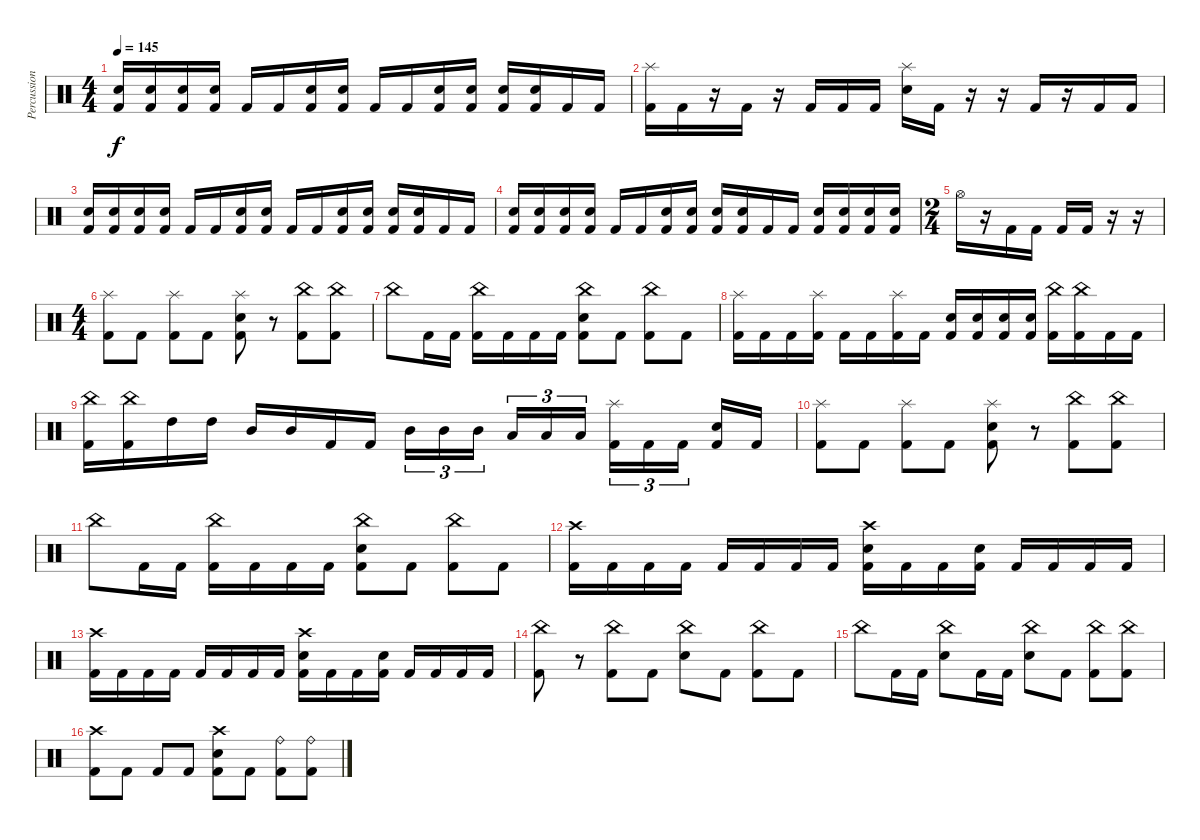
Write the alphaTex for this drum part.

\track ("Percussion" "Percussion") {instrument percussion}
\staff {score}
\articulation defaults
\ts (4 4)
\tempo 145
\clef neutral
\ks c
("Snare (hit) 2" "Kick (hit) 2").16{dy f} ("Snare (hit) 2" "Kick (hit) 2").16 ("Snare (hit) 2" "Kick (hit) 2").16 ("Snare (hit) 2" "Kick (hit) 2").16 "Kick (hit) 2".16 "Kick (hit) 2".16 ("Snare (hit) 2" "Kick (hit) 2").16 ("Snare (hit) 2" "Kick (hit) 2").16 "Kick (hit) 2".16 "Kick (hit) 2".16 ("Snare (hit) 2" "Kick (hit) 2").16 ("Snare (hit) 2" "Kick (hit) 2").16 ("Snare (hit) 2" "Kick (hit) 2").16 ("Snare (hit) 2" "Kick (hit) 2").16 "Kick (hit) 2".16 "Kick (hit) 2".16 |
("Splash (hit)" "Kick (hit) 2").16 "Kick (hit) 2".16 r.16 "Kick (hit) 2".16 r.16 "Kick (hit) 2".16 "Kick (hit) 2".16 "Kick (hit) 2".16 ("Splash (hit)" "Snare (hit) 2").16 "Kick (hit) 2".16 r.16 r.16 "Kick (hit) 2".16 r.16 "Kick (hit) 2".16 "Kick (hit) 2".16 |
("Snare (hit) 2" "Kick (hit) 2").16 ("Snare (hit) 2" "Kick (hit) 2").16 ("Snare (hit) 2" "Kick (hit) 2").16 ("Snare (hit) 2" "Kick (hit) 2").16 "Kick (hit) 2".16 "Kick (hit) 2".16 ("Snare (hit) 2" "Kick (hit) 2").16 ("Snare (hit) 2" "Kick (hit) 2").16 "Kick (hit) 2".16 "Kick (hit) 2".16 ("Snare (hit) 2" "Kick (hit) 2").16 ("Snare (hit) 2" "Kick (hit) 2").16 ("Snare (hit) 2" "Kick (hit) 2").16 ("Snare (hit) 2" "Kick (hit) 2").16 "Kick (hit) 2".16 "Kick (hit) 2".16 |
("Snare (hit) 2" "Kick (hit) 2").16 ("Snare (hit) 2" "Kick (hit) 2").16 ("Snare (hit) 2" "Kick (hit) 2").16 ("Snare (hit) 2" "Kick (hit) 2").16 "Kick (hit) 2".16 "Kick (hit) 2".16 ("Snare (hit) 2" "Kick (hit) 2").16 ("Snare (hit) 2" "Kick (hit) 2").16 ("Snare (hit) 2" "Kick (hit) 2").16 ("Snare (hit) 2" "Kick (hit) 2").16 "Kick (hit) 2".16 "Kick (hit) 2".16 ("Snare (hit) 2" "Kick (hit) 2").16 ("Snare (hit) 2" "Kick (hit) 2").16 ("Snare (hit) 2" "Kick (hit) 2").16 ("Snare (hit) 2" "Kick (hit) 2").16 |
\ts (2 4)
"Hi-Hat (open)".16 r.16 "Kick (hit) 2".16 "Kick (hit) 2".16 "Kick (hit) 2".16 "Kick (hit) 2".16 r.16 r.16 |
\ts (4 4)
("Splash (hit)" "Kick (hit) 2").8 "Kick (hit) 2".8 ("Splash (hit)" "Kick (hit) 2").8 "Kick (hit) 2".8 ("Splash (hit)" "Snare (hit) 2" "Kick (hit) 2").8 r.8 ("China (hit)" "Kick (hit) 2").8 ("China (hit)" "Kick (hit) 2").8 |
"China (hit)".8 "Kick (hit) 2".16 "Kick (hit) 2".16 ("China (hit)" "Kick (hit) 2").16 "Kick (hit) 2".16 "Kick (hit) 2".16 "Kick (hit) 2".16 ("China (hit)" "Snare (hit) 2" "Kick (hit) 2").8 "Kick (hit) 2".8 ("China (hit)" "Kick (hit) 2").8 "Kick (hit) 2".8 |
("Splash (hit)" "Kick (hit) 2").16 "Kick (hit) 2".16 "Kick (hit) 2".16 ("Splash (hit)" "Kick (hit) 2").16 "Kick (hit) 2".16 "Kick (hit) 2".16 ("Splash (hit)" "Kick (hit) 2").16 "Kick (hit) 2".16 ("Snare (hit) 2" "Kick (hit) 2").16 ("Snare (hit) 2" "Kick (hit) 2").16 ("Snare (hit) 2" "Kick (hit) 2").16 ("Snare (hit) 2" "Kick (hit) 2").16 ("China (hit)" "Kick (hit) 2").16 ("China (hit)" "Kick (hit) 2").16 "Kick (hit) 2".16 "Kick (hit) 2".16 |
("China (hit)" "Kick (hit) 2").16 ("China (hit)" "Kick (hit) 2").16 "High Tom (hit)".16 "High Tom (hit)".16 "Mid Tom (hit)".16 "Mid Tom (hit)".16 "Kick (hit) 2".16 "Kick (hit) 2".16 "Mid Tom (hit)".16{tu (3 2)} "Mid Tom (hit)".16{tu (3 2)} "Mid Tom (hit)".16{tu (3 2) beam splitsecondary} "Low Tom (hit)".16{tu (3 2)} "Low Tom (hit)".16{tu (3 2)} "Low Tom (hit)".16{tu (3 2)} ("Splash (hit)" "Kick (hit) 2").16{tu (3 2)} "Kick (hit) 2".16{tu (3 2)} "Kick (hit) 2".16{tu (3 2) beam splitsecondary} ("Snare (hit) 2" "Kick (hit) 2").16 "Kick (hit) 2".16 |
("Splash (hit)" "Kick (hit) 2").8 "Kick (hit) 2".8 ("Splash (hit)" "Kick (hit) 2").8 "Kick (hit) 2".8 ("Splash (hit)" "Snare (hit) 2" "Kick (hit) 2").8 r.8 ("China (hit)" "Kick (hit) 2").8 ("China (hit)" "Kick (hit) 2").8 |
"China (hit)".8 "Kick (hit) 2".16 "Kick (hit) 2".16 ("China (hit)" "Kick (hit) 2").16 "Kick (hit) 2".16 "Kick (hit) 2".16 "Kick (hit) 2".16 ("China (hit)" "Snare (hit) 2" "Kick (hit) 2").8 "Kick (hit) 2".8 ("China (hit)" "Kick (hit) 2").8 "Kick (hit) 2".8 |
("Crash high (hit)" "Kick (hit) 2").16 "Kick (hit) 2".16 "Kick (hit) 2".16 "Kick (hit) 2".16 "Kick (hit) 2".16 "Kick (hit) 2".16 "Kick (hit) 2".16 "Kick (hit) 2".16 ("Crash high (hit)" "Snare (hit) 2" "Kick (hit) 2").16 "Kick (hit) 2".16 "Kick (hit) 2".16 ("Snare (hit) 2" "Kick (hit) 2").16 "Kick (hit) 2".16 "Kick (hit) 2".16 "Kick (hit) 2".16 "Kick (hit) 2".16 |
("Crash high (hit)" "Kick (hit) 2").16 "Kick (hit) 2".16 "Kick (hit) 2".16 "Kick (hit) 2".16 "Kick (hit) 2".16 "Kick (hit) 2".16 "Kick (hit) 2".16 "Kick (hit) 2".16 ("Crash high (hit)" "Snare (hit) 2" "Kick (hit) 2").16 "Kick (hit) 2".16 "Kick (hit) 2".16 ("Snare (hit) 2" "Kick (hit) 2").16 "Kick (hit) 2".16 "Kick (hit) 2".16 "Kick (hit) 2".16 "Kick (hit) 2".16 |
("China (hit)" "Kick (hit) 2").8 r.8 ("China (hit)" "Kick (hit) 2").8 "Kick (hit) 2".8 ("China (hit)" "Snare (hit) 2").8 "Kick (hit) 2".8 ("China (hit)" "Kick (hit) 2").8 "Kick (hit) 2".8 |
"China (hit)".8 "Kick (hit) 2".16 "Kick (hit) 2".16 ("China (hit)" "Snare (hit) 2").8 "Kick (hit) 2".16 "Kick (hit) 2".16 ("China (hit)" "Snare (hit) 2").8 "Kick (hit) 2".8 ("China (hit)" "Kick (hit) 2").8 ("China (hit)" "Kick (hit) 2").8 |
("Crash high (hit)" "Kick (hit) 2").8 "Kick (hit) 2".8 "Kick (hit) 2".8 "Kick (hit) 2".8 ("Crash high (hit)" "Snare (hit) 2" "Kick (hit) 2").8 "Kick (hit) 2".8 ("Ride (bell)" "Kick (hit) 2").8 ("Ride (bell)" "Kick (hit) 2").8
